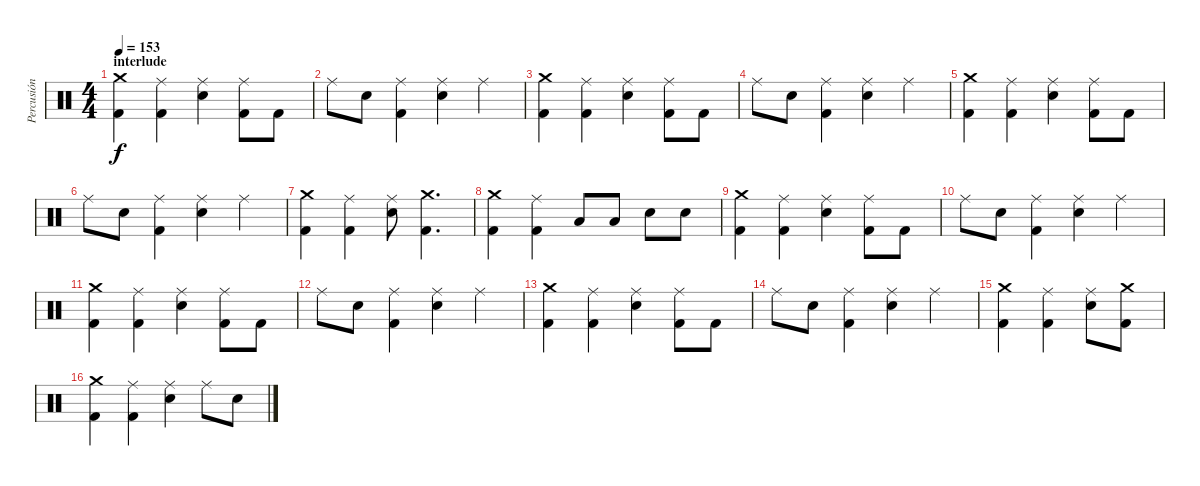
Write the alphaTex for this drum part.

\track ("Percusión" "Percusión") {instrument percussion}
\staff {score}
\articulation defaults
\ts (4 4)
\section ("" "interlude")
\tempo 153
\clef neutral
\ks c
("Crash medium (hit)" "Kick (hit) 2").4{dy f} ("Ride (middle)" "Kick (hit) 2").4 ("Ride (middle)" "Electric Snare (hit)").4 ("Ride (middle)" "Kick (hit) 2").8 "Kick (hit) 2".8 |
"Ride (middle)".8 "Electric Snare (hit)".8 ("Ride (middle)" "Kick (hit) 2").4 ("Ride (middle)" "Electric Snare (hit)").4 "Ride (middle)".4 |
("Crash medium (hit)" "Kick (hit) 2").4 ("Ride (middle)" "Kick (hit) 2").4 ("Ride (middle)" "Electric Snare (hit)").4 ("Ride (middle)" "Kick (hit) 2").8 "Kick (hit) 2".8 |
"Ride (middle)".8 "Electric Snare (hit)".8 ("Ride (middle)" "Kick (hit) 2").4 ("Ride (middle)" "Electric Snare (hit)").4 "Ride (middle)".4 |
("Crash medium (hit)" "Kick (hit) 2").4 ("Ride (middle)" "Kick (hit) 2").4 ("Ride (middle)" "Electric Snare (hit)").4 ("Ride (middle)" "Kick (hit) 2").8 "Kick (hit) 2".8 |
"Ride (middle)".8 "Electric Snare (hit)".8 ("Ride (middle)" "Kick (hit) 2").4 ("Ride (middle)" "Electric Snare (hit)").4 "Ride (middle)".4 |
("Crash medium (hit)" "Kick (hit) 2").4 ("Ride (middle)" "Kick (hit) 2").4 ("Ride (middle)" "Electric Snare (hit)").8 ("Crash medium (hit)" "Kick (hit) 2").4{d} |
("Crash medium (hit)" "Kick (hit) 2").4 ("Ride (middle)" "Kick (hit) 2").4 "Low Tom (hit)".8 "Low Tom (hit)".8 "Electric Snare (hit)".8 "Electric Snare (hit)".8 |
("Crash medium (hit)" "Kick (hit) 2").4 ("Ride (middle)" "Kick (hit) 2").4 ("Ride (middle)" "Electric Snare (hit)").4 ("Ride (middle)" "Kick (hit) 2").8 "Kick (hit) 2".8 |
"Ride (middle)".8 "Electric Snare (hit)".8 ("Ride (middle)" "Kick (hit) 2").4 ("Ride (middle)" "Electric Snare (hit)").4 "Ride (middle)".4 |
("Crash medium (hit)" "Kick (hit) 2").4 ("Ride (middle)" "Kick (hit) 2").4 ("Ride (middle)" "Electric Snare (hit)").4 ("Ride (middle)" "Kick (hit) 2").8 "Kick (hit) 2".8 |
"Ride (middle)".8 "Electric Snare (hit)".8 ("Ride (middle)" "Kick (hit) 2").4 ("Ride (middle)" "Electric Snare (hit)").4 "Ride (middle)".4 |
("Crash medium (hit)" "Kick (hit) 2").4 ("Ride (middle)" "Kick (hit) 2").4 ("Ride (middle)" "Electric Snare (hit)").4 ("Ride (middle)" "Kick (hit) 2").8 "Kick (hit) 2".8 |
"Ride (middle)".8 "Electric Snare (hit)".8 ("Ride (middle)" "Kick (hit) 2").4 ("Ride (middle)" "Electric Snare (hit)").4 "Ride (middle)".4 |
("Crash medium (hit)" "Kick (hit) 2").4 ("Ride (middle)" "Kick (hit) 2").4 ("Ride (middle)" "Electric Snare (hit)").8 ("Crash medium (hit)" "Kick (hit) 2").8 |
("Crash medium (hit)" "Kick (hit) 2").4 ("Ride (middle)" "Kick (hit) 2").4 ("Ride (middle)" "Electric Snare (hit)").4 "Ride (middle)".8 "Electric Snare (hit)".8
